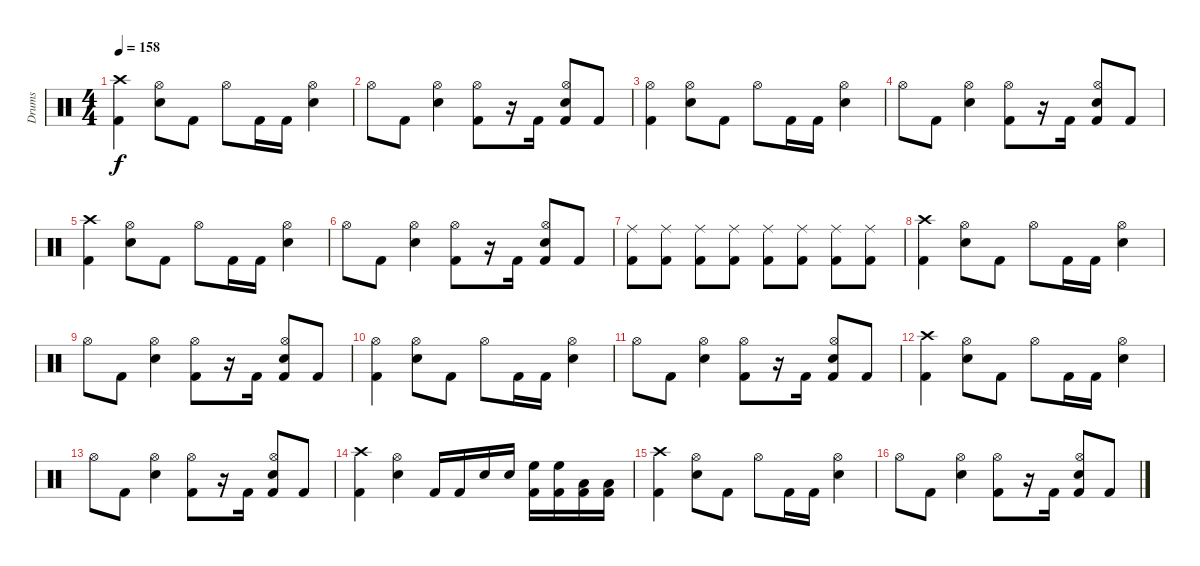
\track ("Drums" "Drums") {instrument percussion}
\staff {score}
\articulation defaults
\ts (4 4)
\tempo 158
\clef neutral
\ks c
("Crash high (hit)" "Kick (hit) 2").4{dy f} ("Hi-Hat (open)" "Snare (hit) 2").8 "Kick (hit) 2".8 "Hi-Hat (open)".8 "Kick (hit) 2".16 "Kick (hit) 2".16 ("Hi-Hat (open)" "Snare (hit) 2").4 |
"Hi-Hat (open)".8 "Kick (hit) 2".8 ("Hi-Hat (open)" "Snare (hit) 2").4 ("Hi-Hat (open)" "Kick (hit) 2").8 r.16 "Kick (hit) 2".16 ("Hi-Hat (open)" "Snare (hit) 2" "Kick (hit) 2").8 "Kick (hit) 2".8 |
("Hi-Hat (open)" "Kick (hit) 2").4 ("Hi-Hat (open)" "Snare (hit) 2").8 "Kick (hit) 2".8 "Hi-Hat (open)".8 "Kick (hit) 2".16 "Kick (hit) 2".16 ("Hi-Hat (open)" "Snare (hit) 2").4 |
"Hi-Hat (open)".8 "Kick (hit) 2".8 ("Hi-Hat (open)" "Snare (hit) 2").4 ("Hi-Hat (open)" "Kick (hit) 2").8 r.16 "Kick (hit) 2".16 ("Hi-Hat (open)" "Snare (hit) 2" "Kick (hit) 2").8 "Kick (hit) 2".8 |
("Crash high (hit)" "Kick (hit) 2").4 ("Hi-Hat (open)" "Snare (hit) 2").8 "Kick (hit) 2".8 "Hi-Hat (open)".8 "Kick (hit) 2".16 "Kick (hit) 2".16 ("Hi-Hat (open)" "Snare (hit) 2").4 |
"Hi-Hat (open)".8 "Kick (hit) 2".8 ("Hi-Hat (open)" "Snare (hit) 2").4 ("Hi-Hat (open)" "Kick (hit) 2").8 r.16 "Kick (hit) 2".16 ("Hi-Hat (open)" "Snare (hit) 2" "Kick (hit) 2").8 "Kick (hit) 2".8 |
("Ride (middle)" "Kick (hit) 2").8 ("Ride (middle)" "Kick (hit) 2").8 ("Ride (middle)" "Kick (hit) 2").8 ("Ride (middle)" "Kick (hit) 2").8 ("Ride (middle)" "Kick (hit) 2").8 ("Ride (middle)" "Kick (hit) 2").8 ("Ride (middle)" "Kick (hit) 2").8 ("Ride (middle)" "Kick (hit) 2").8 |
("Crash high (hit)" "Kick (hit) 2").4 ("Hi-Hat (open)" "Snare (hit) 2").8 "Kick (hit) 2".8 "Hi-Hat (open)".8 "Kick (hit) 2".16 "Kick (hit) 2".16 ("Hi-Hat (open)" "Snare (hit) 2").4 |
"Hi-Hat (open)".8 "Kick (hit) 2".8 ("Hi-Hat (open)" "Snare (hit) 2").4 ("Hi-Hat (open)" "Kick (hit) 2").8 r.16 "Kick (hit) 2".16 ("Hi-Hat (open)" "Snare (hit) 2" "Kick (hit) 2").8 "Kick (hit) 2".8 |
("Hi-Hat (open)" "Kick (hit) 2").4 ("Hi-Hat (open)" "Snare (hit) 2").8 "Kick (hit) 2".8 "Hi-Hat (open)".8 "Kick (hit) 2".16 "Kick (hit) 2".16 ("Hi-Hat (open)" "Snare (hit) 2").4 |
"Hi-Hat (open)".8 "Kick (hit) 2".8 ("Hi-Hat (open)" "Snare (hit) 2").4 ("Hi-Hat (open)" "Kick (hit) 2").8 r.16 "Kick (hit) 2".16 ("Hi-Hat (open)" "Snare (hit) 2" "Kick (hit) 2").8 "Kick (hit) 2".8 |
("Crash high (hit)" "Kick (hit) 2").4 ("Hi-Hat (open)" "Snare (hit) 2").8 "Kick (hit) 2".8 "Hi-Hat (open)".8 "Kick (hit) 2".16 "Kick (hit) 2".16 ("Hi-Hat (open)" "Snare (hit) 2").4 |
"Hi-Hat (open)".8 "Kick (hit) 2".8 ("Hi-Hat (open)" "Snare (hit) 2").4 ("Hi-Hat (open)" "Kick (hit) 2").8 r.16 "Kick (hit) 2".16 ("Hi-Hat (open)" "Snare (hit) 2" "Kick (hit) 2").8 "Kick (hit) 2".8 |
("Crash high (hit)" "Kick (hit) 2").4 ("Hi-Hat (open)" "Snare (hit) 2").4 "Kick (hit) 2".16 "Kick (hit) 2".16 "Snare (hit) 2".16 "Snare (hit) 2".16 ("High Floor Tom (hit)" "Kick (hit) 2").16 ("High Floor Tom (hit)" "Kick (hit) 2").16 ("Low Tom (hit)" "Kick (hit) 2").16 ("Low Tom (hit)" "Kick (hit) 2").16 |
("Crash high (hit)" "Kick (hit) 2").4 ("Hi-Hat (open)" "Snare (hit) 2").8 "Kick (hit) 2".8 "Hi-Hat (open)".8 "Kick (hit) 2".16 "Kick (hit) 2".16 ("Hi-Hat (open)" "Snare (hit) 2").4 |
"Hi-Hat (open)".8 "Kick (hit) 2".8 ("Hi-Hat (open)" "Snare (hit) 2").4 ("Hi-Hat (open)" "Kick (hit) 2").8 r.16 "Kick (hit) 2".16 ("Hi-Hat (open)" "Snare (hit) 2" "Kick (hit) 2").8 "Kick (hit) 2".8
